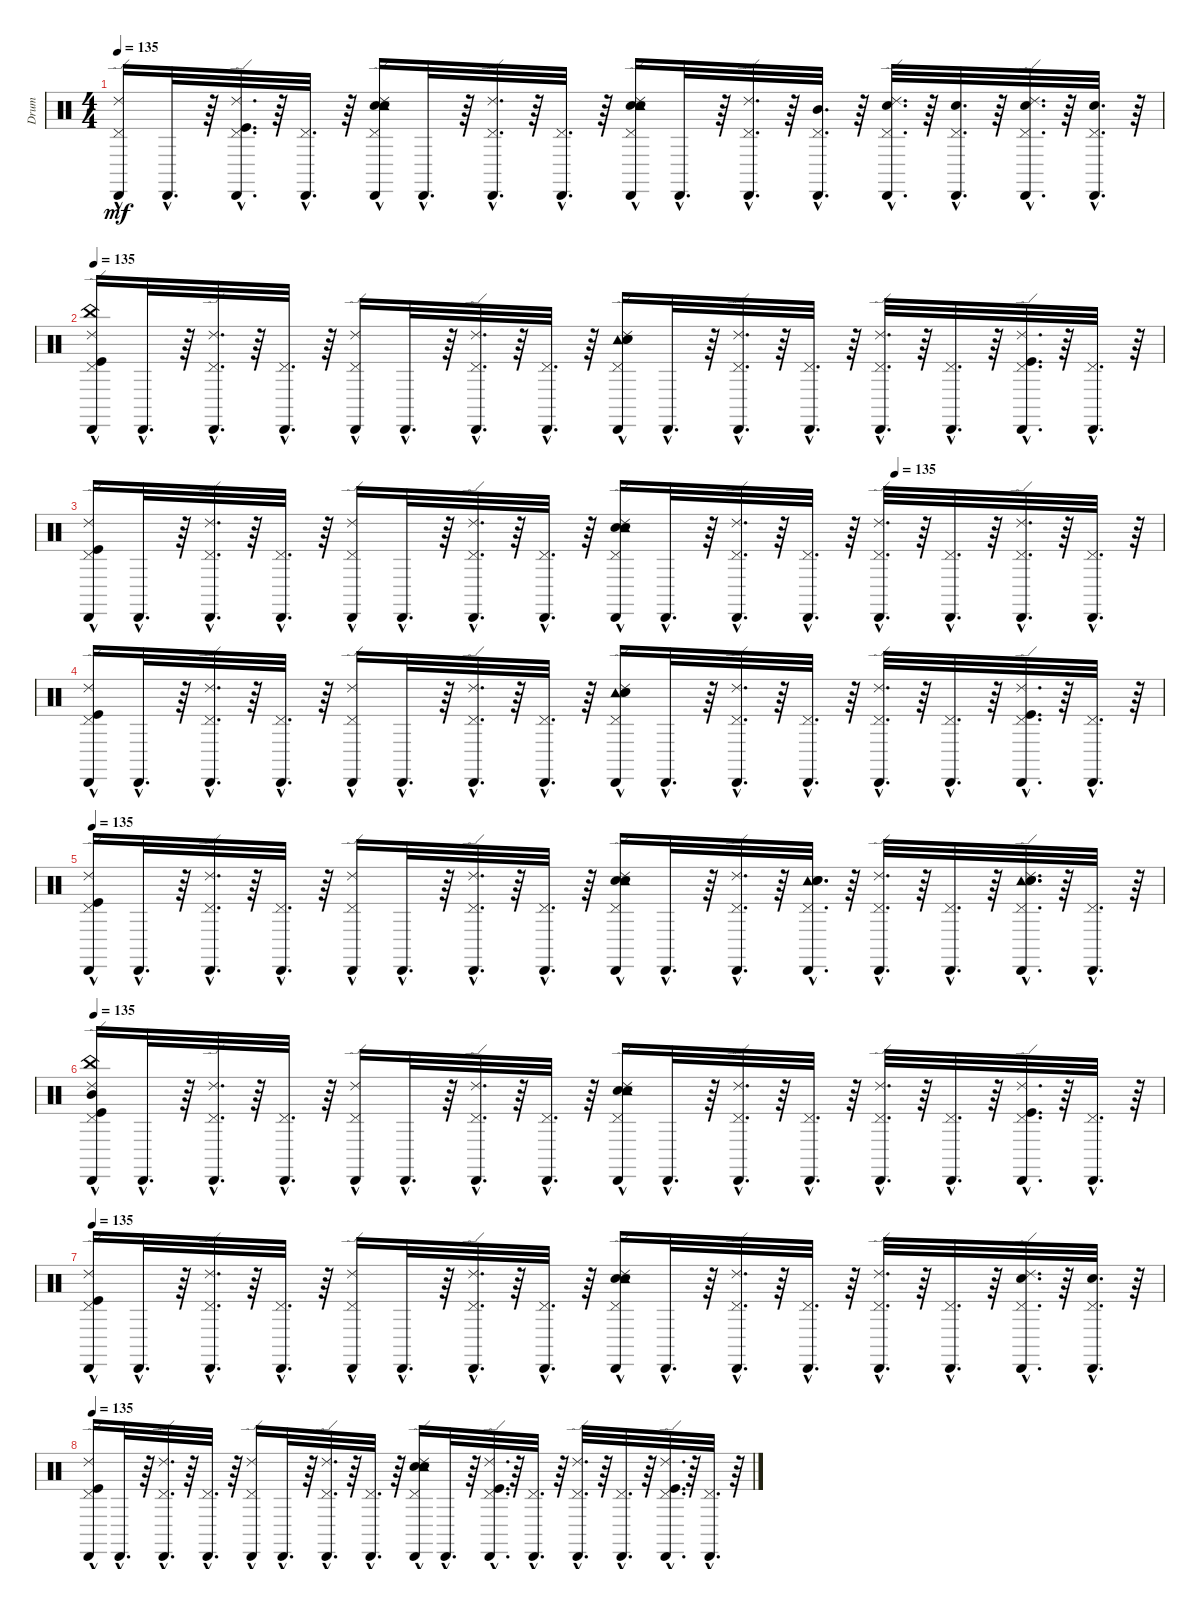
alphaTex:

\track ("Drum" "Drum") {instrument percussion}
\staff {score}
\articulation defaults
\ts (4 4)
\tempo 135
\clef neutral
\ks c
("Cabasa (hit)"{hac} "Pedal Hi-Hat (hit)"{hac} "Ride (edge) 2"{hac}).16{dy mf} "Cabasa (hit)"{hac}.32{d} r.64 ("Cabasa (hit)"{hac} "Ride (edge) 2"{hac} "Pedal Hi-Hat (hit)"{hac} "Kick (hit)"{hac}).32{d} r.64 ("Cabasa (hit)"{hac} "Pedal Hi-Hat (hit)"{hac}).32{d} r.64 ("Cabasa (hit)"{hac} "Ride (edge) 2"{hac} "Pedal Hi-Hat (hit)"{hac} "Snare (hit) 2"{hac} "Electric Snare (hit)"{hac} "Tambourine (hit)"{hac}).16 "Cabasa (hit)"{hac}.32{d} r.64 ("Cabasa (hit)"{hac} "Ride (edge) 2"{hac} "Pedal Hi-Hat (hit)"{hac}).32{d} r.64 ("Cabasa (hit)"{hac} "Pedal Hi-Hat (hit)"{hac}).32{d} r.64 ("Cabasa (hit)"{hac} "Snare (hit) 2"{hac} "Electric Snare (hit)"{hac} "Tambourine (hit)"{hac} "Pedal Hi-Hat (hit)"{hac} "Ride (edge) 2"{hac}).16 "Cabasa (hit)"{hac}.32{d} r.64 ("Cabasa (hit)"{hac} "Ride (edge) 2"{hac} "Pedal Hi-Hat (hit)"{hac}).32{d} r.64 ("Cabasa (hit)"{hac} "Pedal Hi-Hat (hit)"{hac} "Mid Tom (hit)"{hac}).32{d} r.64 ("Cabasa (hit)"{hac} "Snare (hit) 2"{hac} "Ride (edge) 2"{hac} "Pedal Hi-Hat (hit)"{hac}).32{d} r.64 ("Cabasa (hit)"{hac} "Snare (hit) 2"{hac} "Pedal Hi-Hat (hit)"{hac}).32{d} r.64 ("Cabasa (hit)"{hac} "Snare (hit) 2"{hac} "Ride (edge) 2"{hac} "Pedal Hi-Hat (hit)"{hac}).32{d} r.64 ("Cabasa (hit)"{hac} "Snare (hit) 2"{hac} "Pedal Hi-Hat (hit)"{hac}).32{d} r.64 |
\tempo 135
("Cabasa (hit)"{hac} "Ride (edge) 2"{hac} "Kick (hit)"{hac} "Pedal Hi-Hat (hit)"{hac} "China (hit)"{hac}).16 "Cabasa (hit)"{hac}.32{d} r.64 ("Cabasa (hit)"{hac} "Ride (edge) 2"{hac} "Pedal Hi-Hat (hit)"{hac}).32{d} r.64 ("Cabasa (hit)"{hac} "Pedal Hi-Hat (hit)"{hac}).32{d} r.64 ("Cabasa (hit)"{hac} "Ride (edge) 2"{hac} "Pedal Hi-Hat (hit)"{hac}).16 "Cabasa (hit)"{hac}.32{d} r.64 ("Cabasa (hit)"{hac} "Ride (edge) 2"{hac} "Pedal Hi-Hat (hit)"{hac}).32{d} r.64 ("Cabasa (hit)"{hac} "Pedal Hi-Hat (hit)"{hac}).32{d} r.64 ("Cabasa (hit)"{hac} "Tambourine (hit)"{hac} "Ride (edge) 2"{hac} "Pedal Hi-Hat (hit)"{hac} "Electric Snare (hit)"{hac} "Snare (hit) 2"{hac}).16 "Cabasa (hit)"{hac}.32{d} r.64 ("Cabasa (hit)"{hac} "Ride (edge) 2"{hac} "Pedal Hi-Hat (hit)"{hac}).32{d} r.64 ("Cabasa (hit)"{hac} "Pedal Hi-Hat (hit)"{hac}).32{d} r.64 ("Cabasa (hit)"{hac} "Ride (edge) 2"{hac} "Pedal Hi-Hat (hit)"{hac}).32{d} r.64 ("Cabasa (hit)"{hac} "Pedal Hi-Hat (hit)"{hac}).32{d} r.64 ("Cabasa (hit)"{hac} "Ride (edge) 2"{hac} "Kick (hit)"{hac} "Pedal Hi-Hat (hit)"{hac}).32{d} r.64 ("Cabasa (hit)"{hac} "Pedal Hi-Hat (hit)"{hac}).32{d} r.64 |
\tempo (135 0.75)
("Cabasa (hit)"{hac} "Ride (edge) 2"{hac} "Kick (hit)"{hac} "Pedal Hi-Hat (hit)"{hac}).16 "Cabasa (hit)"{hac}.32{d} r.64 ("Cabasa (hit)"{hac} "Ride (edge) 2"{hac} "Pedal Hi-Hat (hit)"{hac}).32{d} r.64 ("Cabasa (hit)"{hac} "Pedal Hi-Hat (hit)"{hac}).32{d} r.64 ("Cabasa (hit)"{hac} "Ride (edge) 2"{hac} "Pedal Hi-Hat (hit)"{hac}).16 "Cabasa (hit)"{hac}.32{d} r.64 ("Cabasa (hit)"{hac} "Ride (edge) 2"{hac} "Pedal Hi-Hat (hit)"{hac}).32{d} r.64 ("Cabasa (hit)"{hac} "Pedal Hi-Hat (hit)"{hac}).32{d} r.64 ("Cabasa (hit)"{hac} "Electric Snare (hit)"{hac} "Tambourine (hit)"{hac} "Ride (edge) 2"{hac} "Snare (hit) 2"{hac} "Pedal Hi-Hat (hit)"{hac}).16 "Cabasa (hit)"{hac}.32{d} r.64 ("Cabasa (hit)"{hac} "Ride (edge) 2"{hac} "Pedal Hi-Hat (hit)"{hac}).32{d} r.64 ("Cabasa (hit)"{hac} "Pedal Hi-Hat (hit)"{hac}).32{d} r.64 ("Cabasa (hit)"{hac} "Pedal Hi-Hat (hit)"{hac} "Ride (edge) 2"{hac}).32{d} r.64 ("Cabasa (hit)"{hac} "Pedal Hi-Hat (hit)"{hac}).32{d} r.64 ("Cabasa (hit)"{hac} "Ride (edge) 2"{hac} "Pedal Hi-Hat (hit)"{hac}).32{d} r.64 ("Cabasa (hit)"{hac} "Pedal Hi-Hat (hit)"{hac}).32{d} r.64 |
("Cabasa (hit)"{hac} "Ride (edge) 2"{hac} "Kick (hit)"{hac} "Pedal Hi-Hat (hit)"{hac}).16 "Cabasa (hit)"{hac}.32{d} r.64 ("Cabasa (hit)"{hac} "Ride (edge) 2"{hac} "Pedal Hi-Hat (hit)"{hac}).32{d} r.64 ("Cabasa (hit)"{hac} "Pedal Hi-Hat (hit)"{hac}).32{d} r.64 ("Cabasa (hit)"{hac} "Ride (edge) 2"{hac} "Pedal Hi-Hat (hit)"{hac}).16 "Cabasa (hit)"{hac}.32{d} r.64 ("Cabasa (hit)"{hac} "Ride (edge) 2"{hac} "Pedal Hi-Hat (hit)"{hac}).32{d} r.64 ("Cabasa (hit)"{hac} "Pedal Hi-Hat (hit)"{hac}).32{d} r.64 ("Cabasa (hit)"{hac} "Tambourine (hit)"{hac} "Ride (edge) 2"{hac} "Pedal Hi-Hat (hit)"{hac} "Electric Snare (hit)"{hac} "Snare (hit) 2"{hac}).16 "Cabasa (hit)"{hac}.32{d} r.64 ("Cabasa (hit)"{hac} "Ride (edge) 2"{hac} "Pedal Hi-Hat (hit)"{hac}).32{d} r.64 ("Cabasa (hit)"{hac} "Pedal Hi-Hat (hit)"{hac}).32{d} r.64 ("Cabasa (hit)"{hac} "Ride (edge) 2"{hac} "Pedal Hi-Hat (hit)"{hac}).32{d} r.64 ("Cabasa (hit)"{hac} "Pedal Hi-Hat (hit)"{hac}).32{d} r.64 ("Cabasa (hit)"{hac} "Ride (edge) 2"{hac} "Kick (hit)"{hac} "Pedal Hi-Hat (hit)"{hac}).32{d} r.64 ("Cabasa (hit)"{hac} "Pedal Hi-Hat (hit)"{hac}).32{d} r.64 |
\tempo 135
("Cabasa (hit)"{hac} "Ride (edge) 2"{hac} "Pedal Hi-Hat (hit)"{hac} "Kick (hit)"{hac}).16 "Cabasa (hit)"{hac}.32{d} r.64 ("Cabasa (hit)"{hac} "Ride (edge) 2"{hac} "Pedal Hi-Hat (hit)"{hac}).32{d} r.64 ("Cabasa (hit)"{hac} "Pedal Hi-Hat (hit)"{hac}).32{d} r.64 ("Cabasa (hit)"{hac} "Ride (edge) 2"{hac} "Pedal Hi-Hat (hit)"{hac}).16 "Cabasa (hit)"{hac}.32{d} r.64 ("Cabasa (hit)"{hac} "Ride (edge) 2"{hac} "Pedal Hi-Hat (hit)"{hac}).32{d} r.64 ("Cabasa (hit)"{hac} "Pedal Hi-Hat (hit)"{hac}).32{d} r.64 ("Cabasa (hit)"{hac} "Electric Snare (hit)"{hac} "Ride (edge) 2"{hac} "Snare (hit) 2"{hac} "Pedal Hi-Hat (hit)"{hac} "Tambourine (hit)"{hac}).16 "Cabasa (hit)"{hac}.32{d} r.64 ("Cabasa (hit)"{hac} "Pedal Hi-Hat (hit)"{hac} "Ride (edge) 2"{hac}).32{d} r.64 ("Cabasa (hit)"{hac} "Pedal Hi-Hat (hit)"{hac} "Tambourine (hit)"{hac} "Snare (hit) 2"{hac} "Electric Snare (hit)"{hac}).32{d} r.64 ("Cabasa (hit)"{hac} "Pedal Hi-Hat (hit)"{hac} "Ride (edge) 2"{hac}).32{d} r.64 ("Cabasa (hit)"{hac} "Pedal Hi-Hat (hit)"{hac}).32{d} r.64 ("Cabasa (hit)"{hac} "Ride (edge) 2"{hac} "Tambourine (hit)"{hac} "Electric Snare (hit)"{hac} "Pedal Hi-Hat (hit)"{hac} "Snare (hit) 2"{hac}).32{d} r.64 ("Cabasa (hit)"{hac} "Pedal Hi-Hat (hit)"{hac}).32{d} r.64 |
\tempo 135
("Cabasa (hit)"{hac} "Mid Tom (hit)"{hac} "China (hit)"{hac} "Pedal Hi-Hat (hit)"{hac} "Kick (hit)"{hac} "Ride (edge) 2"{hac}).16 "Cabasa (hit)"{hac}.32{d} r.64 ("Cabasa (hit)"{hac} "Pedal Hi-Hat (hit)"{hac} "Ride (edge) 2"{hac}).32{d} r.64 ("Cabasa (hit)"{hac} "Pedal Hi-Hat (hit)"{hac}).32{d} r.64 ("Cabasa (hit)"{hac} "Pedal Hi-Hat (hit)"{hac} "Ride (edge) 2"{hac}).16 "Cabasa (hit)"{hac}.32{d} r.64 ("Cabasa (hit)"{hac} "Pedal Hi-Hat (hit)"{hac} "Ride (edge) 2"{hac}).32{d} r.64 ("Cabasa (hit)"{hac} "Pedal Hi-Hat (hit)"{hac}).32{d} r.64 ("Cabasa (hit)"{hac} "Snare (hit) 2"{hac} "Electric Snare (hit)"{hac} "Pedal Hi-Hat (hit)"{hac} "Ride (edge) 2"{hac} "Tambourine (hit)"{hac}).16 "Cabasa (hit)"{hac}.32{d} r.64 ("Cabasa (hit)"{hac} "Pedal Hi-Hat (hit)"{hac} "Ride (edge) 2"{hac}).32{d} r.64 ("Cabasa (hit)"{hac} "Pedal Hi-Hat (hit)"{hac}).32{d} r.64 ("Cabasa (hit)"{hac} "Pedal Hi-Hat (hit)"{hac} "Ride (edge) 2"{hac}).32{d} r.64 ("Cabasa (hit)"{hac} "Pedal Hi-Hat (hit)"{hac}).32{d} r.64 ("Cabasa (hit)"{hac} "Pedal Hi-Hat (hit)"{hac} "Kick (hit)"{hac} "Ride (edge) 2"{hac}).32{d} r.64 ("Cabasa (hit)"{hac} "Pedal Hi-Hat (hit)"{hac}).32{d} r.64 |
\tempo 135
("Cabasa (hit)"{hac} "Pedal Hi-Hat (hit)"{hac} "Kick (hit)"{hac} "Ride (edge) 2"{hac}).16 "Cabasa (hit)"{hac}.32{d} r.64 ("Cabasa (hit)"{hac} "Pedal Hi-Hat (hit)"{hac} "Ride (edge) 2"{hac}).32{d} r.64 ("Cabasa (hit)"{hac} "Pedal Hi-Hat (hit)"{hac}).32{d} r.64 ("Cabasa (hit)"{hac} "Pedal Hi-Hat (hit)"{hac} "Ride (edge) 2"{hac}).16 "Cabasa (hit)"{hac}.32{d} r.64 ("Cabasa (hit)"{hac} "Pedal Hi-Hat (hit)"{hac} "Ride (edge) 2"{hac}).32{d} r.64 ("Cabasa (hit)"{hac} "Pedal Hi-Hat (hit)"{hac}).32{d} r.64 ("Cabasa (hit)"{hac} "Pedal Hi-Hat (hit)"{hac} "Snare (hit) 2"{hac} "Ride (edge) 2"{hac} "Tambourine (hit)"{hac} "Electric Snare (hit)"{hac}).16 "Cabasa (hit)"{hac}.32{d} r.64 ("Cabasa (hit)"{hac} "Pedal Hi-Hat (hit)"{hac} "Ride (edge) 2"{hac}).32{d} r.64 ("Cabasa (hit)"{hac} "Pedal Hi-Hat (hit)"{hac}).32{d} r.64 ("Cabasa (hit)"{hac} "Ride (edge) 2"{hac} "Pedal Hi-Hat (hit)"{hac}).32{d} r.64 ("Cabasa (hit)"{hac} "Pedal Hi-Hat (hit)"{hac}).32{d} r.64 ("Cabasa (hit)"{hac} "Snare (hit) 2"{hac} "Pedal Hi-Hat (hit)"{hac} "Ride (edge) 2"{hac}).32{d} r.64 ("Cabasa (hit)"{hac} "Snare (hit) 2"{hac} "Pedal Hi-Hat (hit)"{hac}).32{d} r.64 |
\tempo 135
("Cabasa (hit)"{hac} "Pedal Hi-Hat (hit)"{hac} "Kick (hit)"{hac} "Ride (edge) 2"{hac}).16 "Cabasa (hit)"{hac}.32{d} r.64 ("Cabasa (hit)"{hac} "Pedal Hi-Hat (hit)"{hac} "Ride (edge) 2"{hac}).32{d} r.64 ("Cabasa (hit)"{hac} "Pedal Hi-Hat (hit)"{hac}).32{d} r.64 ("Cabasa (hit)"{hac} "Pedal Hi-Hat (hit)"{hac} "Ride (edge) 2"{hac}).16 "Cabasa (hit)"{hac}.32{d} r.64 ("Cabasa (hit)"{hac} "Pedal Hi-Hat (hit)"{hac} "Ride (edge) 2"{hac}).32{d} r.64 ("Cabasa (hit)"{hac} "Pedal Hi-Hat (hit)"{hac}).32{d} r.64 ("Cabasa (hit)"{hac} "Snare (hit) 2"{hac} "Electric Snare (hit)"{hac} "Pedal Hi-Hat (hit)"{hac} "Ride (edge) 2"{hac} "Tambourine (hit)"{hac}).16 "Cabasa (hit)"{hac}.32{d} r.64 ("Cabasa (hit)"{hac} "Kick (hit)"{hac} "Pedal Hi-Hat (hit)"{hac} "Ride (edge) 2"{hac}).32{d} r.64 ("Cabasa (hit)"{hac} "Pedal Hi-Hat (hit)"{hac}).32{d} r.64 ("Cabasa (hit)"{hac} "Pedal Hi-Hat (hit)"{hac} "Ride (edge) 2"{hac}).32{d} r.64 ("Cabasa (hit)"{hac} "Pedal Hi-Hat (hit)"{hac}).32{d} r.64 ("Cabasa (hit)"{hac} "Kick (hit)"{hac} "Pedal Hi-Hat (hit)"{hac} "Ride (edge) 2"{hac}).32{d} r.64 ("Cabasa (hit)"{hac} "Pedal Hi-Hat (hit)"{hac}).32{d} r.64
